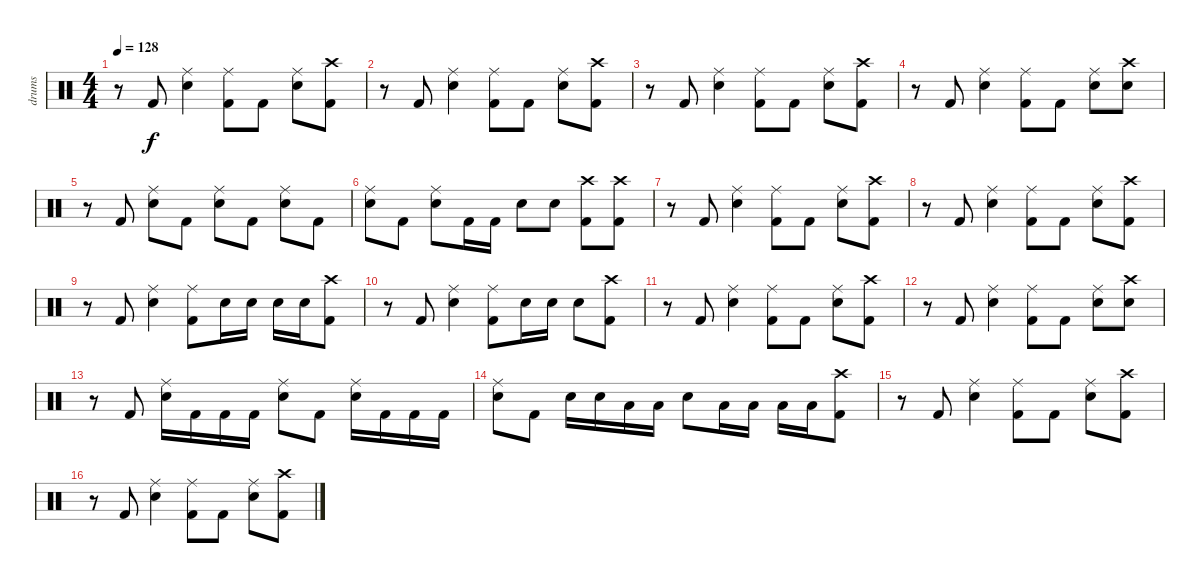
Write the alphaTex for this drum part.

\track ("drums" "drums") {instrument percussion}
\staff {score}
\articulation defaults
\ts (4 4)
\tempo 128
\clef neutral
\ks c
r.8{dy f} "Kick (hit) 2".8 ("Ride (middle)" "Electric Snare (hit)").4 ("Ride (middle)" "Kick (hit) 2").8 "Kick (hit) 2".8 ("Ride (middle)" "Electric Snare (hit)").8 ("Crash high (hit)" "Kick (hit) 2").8 |
r.8 "Kick (hit) 2".8 ("Ride (middle)" "Electric Snare (hit)").4 ("Ride (middle)" "Kick (hit) 2").8 "Kick (hit) 2".8 ("Ride (middle)" "Electric Snare (hit)").8 ("Crash high (hit)" "Kick (hit) 2").8 |
r.8 "Kick (hit) 2".8 ("Ride (middle)" "Electric Snare (hit)").4 ("Ride (middle)" "Kick (hit) 2").8 "Kick (hit) 2".8 ("Ride (middle)" "Electric Snare (hit)").8 ("Crash high (hit)" "Kick (hit) 2").8 |
r.8 "Kick (hit) 2".8 ("Ride (middle)" "Electric Snare (hit)").4 ("Ride (middle)" "Kick (hit) 2").8 "Kick (hit) 2".8 ("Ride (middle)" "Electric Snare (hit)").8 ("Crash high (hit)" "Electric Snare (hit)").8 |
r.8 "Kick (hit) 2".8 ("Ride (middle)" "Electric Snare (hit)").8 "Kick (hit) 2".8 ("Ride (middle)" "Electric Snare (hit)").8 "Kick (hit) 2".8 ("Ride (middle)" "Electric Snare (hit)").8 "Kick (hit) 2".8 |
("Ride (middle)" "Electric Snare (hit)").8 "Kick (hit) 2".8 ("Ride (middle)" "Electric Snare (hit)").8 "Kick (hit) 2".16 "Kick (hit) 2".16 "Electric Snare (hit)".8 "Electric Snare (hit)".8 ("Crash high (hit)" "Kick (hit) 2").8 ("Crash high (hit)" "Kick (hit) 2").8 |
r.8 "Kick (hit) 2".8 ("Ride (middle)" "Electric Snare (hit)").4 ("Ride (middle)" "Kick (hit) 2").8 "Kick (hit) 2".8 ("Ride (middle)" "Electric Snare (hit)").8 ("Crash high (hit)" "Kick (hit) 2").8 |
r.8 "Kick (hit) 2".8 ("Ride (middle)" "Electric Snare (hit)").4 ("Ride (middle)" "Kick (hit) 2").8 "Kick (hit) 2".8 ("Ride (middle)" "Electric Snare (hit)").8 ("Crash high (hit)" "Kick (hit) 2").8 |
r.8 "Kick (hit) 2".8 ("Ride (middle)" "Electric Snare (hit)").4 ("Ride (middle)" "Kick (hit) 2").8 "Electric Snare (hit)".16 "Electric Snare (hit)".16 "Electric Snare (hit)".16 "Electric Snare (hit)".16 ("Crash high (hit)" "Kick (hit) 2").8 |
r.8 "Kick (hit) 2".8 ("Ride (middle)" "Electric Snare (hit)").4 ("Ride (middle)" "Kick (hit) 2").8 "Electric Snare (hit)".16 "Electric Snare (hit)".16 "Electric Snare (hit)".8 ("Crash high (hit)" "Kick (hit) 2").8 |
r.8 "Kick (hit) 2".8 ("Ride (middle)" "Electric Snare (hit)").4 ("Ride (middle)" "Kick (hit) 2").8 "Kick (hit) 2".8 ("Ride (middle)" "Electric Snare (hit)").8 ("Crash high (hit)" "Kick (hit) 2").8 |
r.8 "Kick (hit) 2".8 ("Ride (middle)" "Electric Snare (hit)").4 ("Ride (middle)" "Kick (hit) 2").8 "Kick (hit) 2".8 ("Ride (middle)" "Electric Snare (hit)").8 ("Crash high (hit)" "Electric Snare (hit)").8 |
r.8 "Kick (hit) 2".8 ("Ride (middle)" "Electric Snare (hit)").16 "Kick (hit) 2".16 "Kick (hit) 2".16 "Kick (hit) 2".16 ("Ride (middle)" "Electric Snare (hit)").8 "Kick (hit) 2".8 ("Ride (middle)" "Electric Snare (hit)").16 "Kick (hit) 2".16 "Kick (hit) 2".16 "Kick (hit) 2".16 |
("Ride (middle)" "Electric Snare (hit)").8 "Kick (hit) 2".8 "Electric Snare (hit)".16 "Electric Snare (hit)".16 "Low Tom (hit)".16 "Low Tom (hit)".16 "Electric Snare (hit)".8 "Low Tom (hit)".16 "Low Tom (hit)".16 "Low Floor Tom (hit)".16 "Low Floor Tom (hit)".16 ("Crash high (hit)" "Kick (hit) 2").8 |
r.8 "Kick (hit) 2".8 ("Ride (middle)" "Electric Snare (hit)").4 ("Ride (middle)" "Kick (hit) 2").8 "Kick (hit) 2".8 ("Ride (middle)" "Electric Snare (hit)").8 ("Crash high (hit)" "Kick (hit) 2").8 |
r.8 "Kick (hit) 2".8 ("Ride (middle)" "Electric Snare (hit)").4 ("Ride (middle)" "Kick (hit) 2").8 "Kick (hit) 2".8 ("Ride (middle)" "Electric Snare (hit)").8 ("Crash high (hit)" "Kick (hit) 2").8
